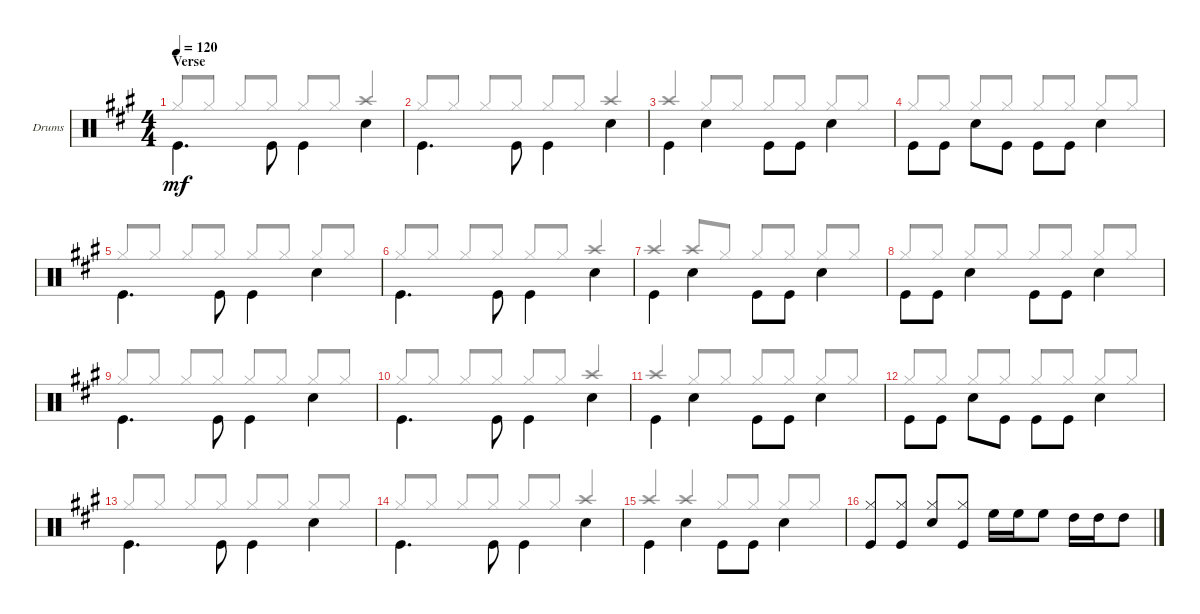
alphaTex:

\defaultSystemsLayout 4
\bracketExtendMode groupsimilarinstruments
\firstSystemTrackNameOrientation horizontal
\otherSystemsTrackNameOrientation horizontal
\track ("PETER CRISS" "Drums") {mute instrument percussion}
\staff {score}
\articulation defaults
\voice
\ts (4 4)
\section ("" "Verse")
\tempo 120
\clef neutral
\ks a "Kick (hit)".4{d dy mf beam invert} "Kick (hit)".8{beam invert} "Kick (hit)".4{beam invert} "Snare (hit) 2".4{beam invert}
|
"Kick (hit)".4{d beam invert} "Kick (hit)".8{beam invert} "Kick (hit)".4{beam invert} "Snare (hit) 2".4{beam invert} |
"Kick (hit)".4{beam invert} "Snare (hit) 2".4{beam invert} "Kick (hit)".8{beam invert} "Kick (hit)".8 "Snare (hit) 2".4{beam invert} |
"Kick (hit)".8{beam invert} "Kick (hit)".8 "Snare (hit) 2".8{beam invert} "Kick (hit)".8 "Kick (hit)".8{beam invert} "Kick (hit)".8 "Snare (hit) 2".4{beam invert} |
"Kick (hit)".4{d beam invert} "Kick (hit)".8{beam invert} "Kick (hit)".4{beam invert} "Snare (hit) 2".4{beam invert} |
"Kick (hit)".4{d beam invert} "Kick (hit)".8{beam invert} "Kick (hit)".4{beam invert} "Snare (hit) 2".4{beam invert} |
"Kick (hit)".4{beam invert} "Snare (hit) 2".4{beam invert} "Kick (hit)".8{beam invert} "Kick (hit)".8 "Snare (hit) 2".4{beam invert} |
"Kick (hit)".8{beam invert} "Kick (hit)".8 "Snare (hit) 2".4{beam invert} "Kick (hit)".8{beam invert} "Kick (hit)".8 "Snare (hit) 2".4{beam invert} |
"Kick (hit)".4{d beam invert} "Kick (hit)".8{beam invert} "Kick (hit)".4{beam invert} "Snare (hit) 2".4{beam invert} |
"Kick (hit)".4{d beam invert} "Kick (hit)".8{beam invert} "Kick (hit)".4{beam invert} "Snare (hit) 2".4{beam invert} |
"Kick (hit)".4{beam invert} "Snare (hit) 2".4{beam invert} "Kick (hit)".8{beam invert} "Kick (hit)".8 "Snare (hit) 2".4{beam invert} |
"Kick (hit)".8{beam invert} "Kick (hit)".8 "Snare (hit) 2".8{beam invert} "Kick (hit)".8 "Kick (hit)".8{beam invert} "Kick (hit)".8 "Snare (hit) 2".4{beam invert} |
"Kick (hit)".4{d beam invert} "Kick (hit)".8{beam invert} "Kick (hit)".4{beam invert} "Snare (hit) 2".4{beam invert} |
"Kick (hit)".4{d beam invert} "Kick (hit)".8{beam invert} "Kick (hit)".4{beam invert} "Snare (hit) 2".4{beam invert} |
"Kick (hit)".4{beam invert} "Snare (hit) 2".4{beam invert} "Kick (hit)".8{beam invert} "Kick (hit)".8 "Snare (hit) 2".4{beam invert} |
("Hi-Hat (closed)" "Kick (hit)").8{beam invert} ("Hi-Hat (closed)" "Kick (hit)").8 ("Hi-Hat (closed)" "Snare (hit) 2").8{beam invert} ("Hi-Hat (closed)" "Kick (hit)").8 "High Floor Tom (hit)".16 "High Floor Tom (hit)".16 "High Floor Tom (hit)".8 "High Tom (hit)".16 "High Tom (hit)".16 "High Tom (hit)".8
\voice
\clef neutral
\ottava regular
\simile none
\ks a "Hi-Hat (closed)".8{dy mf beam invert} "Hi-Hat (closed)".8 "Hi-Hat (closed)".8{beam invert} "Hi-Hat (closed)".8 "Hi-Hat (closed)".8{beam invert} "Hi-Hat (closed)".8 "Crash high (hit)".4{beam invert}
|
"Hi-Hat (closed)".8{beam invert} "Hi-Hat (closed)".8 "Hi-Hat (closed)".8 "Hi-Hat (closed)".8{beam invert} "Hi-Hat (closed)".8 "Hi-Hat (closed)".8{beam invert} "Crash high (hit)".4{beam invert} |
"Crash high (hit)".4{beam invert} "Hi-Hat (closed)".8{beam invert} "Hi-Hat (closed)".8 "Hi-Hat (closed)".8{beam invert} "Hi-Hat (closed)".8 "Hi-Hat (closed)".8{beam invert} "Hi-Hat (closed)".8 |
"Hi-Hat (closed)".8{beam invert} "Hi-Hat (closed)".8 "Hi-Hat (closed)".8{beam invert} "Hi-Hat (closed)".8 "Hi-Hat (closed)".8{beam invert} "Hi-Hat (closed)".8 "Hi-Hat (closed)".8{beam invert} "Hi-Hat (closed)".8 |
"Hi-Hat (closed)".8{beam invert} "Hi-Hat (closed)".8 "Hi-Hat (closed)".8{beam invert} "Hi-Hat (closed)".8 "Hi-Hat (closed)".8{beam invert} "Hi-Hat (closed)".8 "Hi-Hat (closed)".8{beam invert} "Hi-Hat (closed)".8 |
"Hi-Hat (closed)".8{beam invert} "Hi-Hat (closed)".8 "Hi-Hat (closed)".8{beam invert} "Hi-Hat (closed)".8 "Hi-Hat (closed)".8{beam invert} "Hi-Hat (closed)".8 "Crash high (hit)".4{beam invert} |
"Crash high (hit)".4{beam invert} "Crash high (hit)".8{beam invert} "Hi-Hat (closed)".8 "Hi-Hat (closed)".8{beam invert} "Hi-Hat (closed)".8 "Hi-Hat (closed)".8{beam invert} "Hi-Hat (closed)".8 |
"Hi-Hat (closed)".8{beam invert} "Hi-Hat (closed)".8 "Hi-Hat (closed)".8{beam invert} "Hi-Hat (closed)".8 "Hi-Hat (closed)".8{beam invert} "Hi-Hat (closed)".8 "Hi-Hat (closed)".8{beam invert} "Hi-Hat (closed)".8 |
"Hi-Hat (closed)".8{beam invert} "Hi-Hat (closed)".8 "Hi-Hat (closed)".8{beam invert} "Hi-Hat (closed)".8 "Hi-Hat (closed)".8{beam invert} "Hi-Hat (closed)".8 "Hi-Hat (closed)".8{beam invert} "Hi-Hat (closed)".8 |
"Hi-Hat (closed)".8{beam invert} "Hi-Hat (closed)".8 "Hi-Hat (closed)".8{beam invert} "Hi-Hat (closed)".8 "Hi-Hat (closed)".8{beam invert} "Hi-Hat (closed)".8 "Crash high (hit)".4{beam invert} |
"Crash high (hit)".4{beam invert} "Hi-Hat (closed)".8{beam invert} "Hi-Hat (closed)".8 "Hi-Hat (closed)".8{beam invert} "Hi-Hat (closed)".8 "Hi-Hat (closed)".8{beam invert} "Hi-Hat (closed)".8 |
"Hi-Hat (closed)".8{beam invert} "Hi-Hat (closed)".8 "Hi-Hat (closed)".8{beam invert} "Hi-Hat (closed)".8 "Hi-Hat (closed)".8{beam invert} "Hi-Hat (closed)".8 "Hi-Hat (closed)".8{beam invert} "Hi-Hat (closed)".8 |
"Hi-Hat (closed)".8{beam invert} "Hi-Hat (closed)".8 "Hi-Hat (closed)".8{beam invert} "Hi-Hat (closed)".8 "Hi-Hat (closed)".8{beam invert} "Hi-Hat (closed)".8 "Hi-Hat (closed)".8{beam invert} "Hi-Hat (closed)".8 |
"Hi-Hat (closed)".8{beam invert} "Hi-Hat (closed)".8 "Hi-Hat (closed)".8{beam invert} "Hi-Hat (closed)".8 "Hi-Hat (closed)".8{beam invert} "Hi-Hat (closed)".8 "Crash high (hit)".4{beam invert} |
"Crash high (hit)".4{beam invert} "Crash high (hit)".4{beam invert} "Hi-Hat (closed)".8{beam invert} "Hi-Hat (closed)".8 "Hi-Hat (closed)".8{beam invert} "Hi-Hat (closed)".8 |
